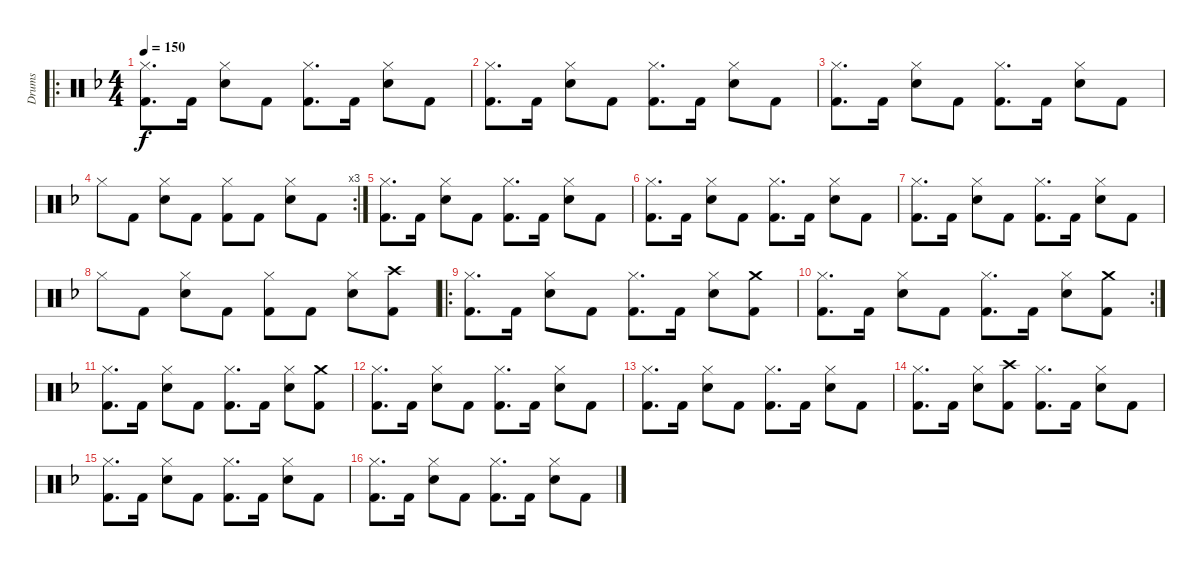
\track ("Drums" "Drums") {instrument percussion}
\staff {score}
\articulation defaults
\ro
\ts (4 4)
\tempo 150
\clef neutral
\ks f
("Kick (hit) 2" "Hi-Hat (closed)").8{d dy f} "Kick (hit) 2".16 ("Snare (hit) 2" "Hi-Hat (closed)").8 "Kick (hit) 2".8 ("Kick (hit) 2" "Hi-Hat (closed)").8{d} "Kick (hit) 2".16 ("Snare (hit) 2" "Hi-Hat (closed)").8 "Kick (hit) 2".8 |
("Kick (hit) 2" "Hi-Hat (closed)").8{d} "Kick (hit) 2".16 ("Snare (hit) 2" "Hi-Hat (closed)").8 "Kick (hit) 2".8 ("Kick (hit) 2" "Hi-Hat (closed)").8{d} "Kick (hit) 2".16 ("Snare (hit) 2" "Hi-Hat (closed)").8 "Kick (hit) 2".8 |
("Kick (hit) 2" "Hi-Hat (closed)").8{d} "Kick (hit) 2".16 ("Snare (hit) 2" "Hi-Hat (closed)").8 "Kick (hit) 2".8 ("Kick (hit) 2" "Hi-Hat (closed)").8{d} "Kick (hit) 2".16 ("Snare (hit) 2" "Hi-Hat (closed)").8 "Kick (hit) 2".8 |
\rc 3 "Hi-Hat (closed)".8 "Kick (hit) 2".8
("Snare (hit) 2" "Hi-Hat (closed)").8 "Kick (hit) 2".8 ("Kick (hit) 2" "Hi-Hat (closed)").8 "Kick (hit) 2".8 ("Hi-Hat (closed)" "Snare (hit) 2").8 "Kick (hit) 2".8 |
("Kick (hit) 2" "Hi-Hat (closed)").8{d} "Kick (hit) 2".16 ("Snare (hit) 2" "Hi-Hat (closed)").8 "Kick (hit) 2".8 ("Kick (hit) 2" "Hi-Hat (closed)").8{d} "Kick (hit) 2".16 ("Snare (hit) 2" "Hi-Hat (closed)").8 "Kick (hit) 2".8 |
("Kick (hit) 2" "Hi-Hat (closed)").8{d} "Kick (hit) 2".16 ("Snare (hit) 2" "Hi-Hat (closed)").8 "Kick (hit) 2".8 ("Kick (hit) 2" "Hi-Hat (closed)").8{d} "Kick (hit) 2".16 ("Snare (hit) 2" "Hi-Hat (closed)").8 "Kick (hit) 2".8 |
("Kick (hit) 2" "Hi-Hat (closed)").8{d} "Kick (hit) 2".16 ("Snare (hit) 2" "Hi-Hat (closed)").8 "Kick (hit) 2".8 ("Kick (hit) 2" "Hi-Hat (closed)").8{d} "Kick (hit) 2".16 ("Snare (hit) 2" "Hi-Hat (closed)").8 "Kick (hit) 2".8 |
"Hi-Hat (closed)".8 "Kick (hit) 2".8 ("Snare (hit) 2" "Hi-Hat (closed)").8 "Kick (hit) 2".8 ("Kick (hit) 2" "Hi-Hat (closed)").8 "Kick (hit) 2".8 ("Hi-Hat (closed)" "Snare (hit) 2").8 ("Kick (hit) 2" "Crash high (hit)").8 |
\ro
("Kick (hit) 2" "Hi-Hat (closed)").8{d} "Kick (hit) 2".16 ("Snare (hit) 2" "Hi-Hat (closed)").8 "Kick (hit) 2".8 ("Kick (hit) 2" "Hi-Hat (closed)").8{d} "Kick (hit) 2".16 ("Snare (hit) 2" "Hi-Hat (closed)").8 ("Kick (hit) 2" "Crash medium (hit)").8 |
\rc 2
("Kick (hit) 2" "Hi-Hat (closed)").8{d} "Kick (hit) 2".16 ("Snare (hit) 2" "Hi-Hat (closed)").8 "Kick (hit) 2".8 ("Kick (hit) 2" "Hi-Hat (closed)").8{d} "Kick (hit) 2".16 ("Snare (hit) 2" "Hi-Hat (closed)").8 ("Kick (hit) 2" "Crash medium (hit)").8 |
("Kick (hit) 2" "Hi-Hat (closed)").8{d} "Kick (hit) 2".16 ("Snare (hit) 2" "Hi-Hat (closed)").8 "Kick (hit) 2".8 ("Kick (hit) 2" "Hi-Hat (closed)").8{d} "Kick (hit) 2".16 ("Snare (hit) 2" "Hi-Hat (closed)").8 ("Kick (hit) 2" "Crash medium (hit)").8 |
("Kick (hit) 2" "Hi-Hat (closed)").8{d} "Kick (hit) 2".16 ("Snare (hit) 2" "Hi-Hat (closed)").8 "Kick (hit) 2".8 ("Kick (hit) 2" "Hi-Hat (closed)").8{d} "Kick (hit) 2".16 ("Snare (hit) 2" "Hi-Hat (closed)").8 "Kick (hit) 2".8 |
("Kick (hit) 2" "Hi-Hat (closed)").8{d} "Kick (hit) 2".16 ("Snare (hit) 2" "Hi-Hat (closed)").8 "Kick (hit) 2".8 ("Kick (hit) 2" "Hi-Hat (closed)").8{d} "Kick (hit) 2".16 ("Snare (hit) 2" "Hi-Hat (closed)").8 "Kick (hit) 2".8 |
("Kick (hit) 2" "Hi-Hat (closed)").8{d} "Kick (hit) 2".16 ("Snare (hit) 2" "Hi-Hat (closed)").8 ("Kick (hit) 2" "Crash high (hit)").8 ("Kick (hit) 2" "Hi-Hat (closed)").8{d} "Kick (hit) 2".16 ("Snare (hit) 2" "Hi-Hat (closed)").8 "Kick (hit) 2".8 |
("Kick (hit) 2" "Hi-Hat (closed)").8{d} "Kick (hit) 2".16 ("Snare (hit) 2" "Hi-Hat (closed)").8 "Kick (hit) 2".8 ("Kick (hit) 2" "Hi-Hat (closed)").8{d} "Kick (hit) 2".16 ("Snare (hit) 2" "Hi-Hat (closed)").8 "Kick (hit) 2".8 |
("Kick (hit) 2" "Hi-Hat (closed)").8{d} "Kick (hit) 2".16 ("Snare (hit) 2" "Hi-Hat (closed)").8 "Kick (hit) 2".8 ("Kick (hit) 2" "Hi-Hat (closed)").8{d} "Kick (hit) 2".16 ("Snare (hit) 2" "Hi-Hat (closed)").8 "Kick (hit) 2".8
